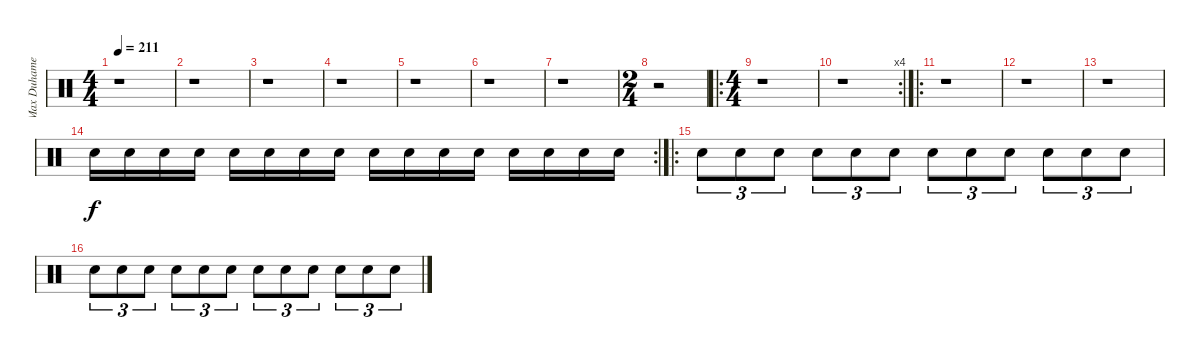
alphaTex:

\track ("Max Duhamel" "Max Duhame") {instrument percussion}
\staff {score}
\articulation defaults
\ts (4 4)
\tempo 211
\clef neutral
\ks c
r.1{dy f} |
r.1 |
r.1 |
r.1 |
r.1 |
r.1 |
r.1 |
\ts (2 4)
r.2 |
\ro
\ts (4 4)
r.1 |
\rc 4
r.1 |
\ro
r.1 |
r.1 |
r.1 |
\rc 2 "Electric Snare (hit)".16 "Electric Snare (hit)".16 "Electric Snare (hit)".16 "Electric Snare (hit)".16 "Electric Snare (hit)".16 "Electric Snare (hit)".16 "Electric Snare (hit)".16 "Electric Snare (hit)".16 "Electric Snare (hit)".16 "Electric Snare (hit)".16 "Electric Snare (hit)".16 "Electric Snare (hit)".16 "Electric Snare (hit)".16 "Electric Snare (hit)".16 "Electric Snare (hit)".16 "Electric Snare (hit)".16
|
\ro "Electric Snare (hit)".8{tu (3 2)} "Electric Snare (hit)".8{tu (3 2)} "Electric Snare (hit)".8{tu (3 2)} "Electric Snare (hit)".8{tu (3 2)} "Electric Snare (hit)".8{tu (3 2)} "Electric Snare (hit)".8{tu (3 2)} "Electric Snare (hit)".8{tu (3 2)} "Electric Snare (hit)".8{tu (3 2)} "Electric Snare (hit)".8{tu (3 2)} "Electric Snare (hit)".8{tu (3 2)} "Electric Snare (hit)".8{tu (3 2)} "Electric Snare (hit)".8{tu (3 2)}
|
"Electric Snare (hit)".8{tu (3 2)} "Electric Snare (hit)".8{tu (3 2)} "Electric Snare (hit)".8{tu (3 2)} "Electric Snare (hit)".8{tu (3 2)} "Electric Snare (hit)".8{tu (3 2)} "Electric Snare (hit)".8{tu (3 2)} "Electric Snare (hit)".8{tu (3 2)} "Electric Snare (hit)".8{tu (3 2)} "Electric Snare (hit)".8{tu (3 2)} "Electric Snare (hit)".8{tu (3 2)} "Electric Snare (hit)".8{tu (3 2)} "Electric Snare (hit)".8{tu (3 2)}
